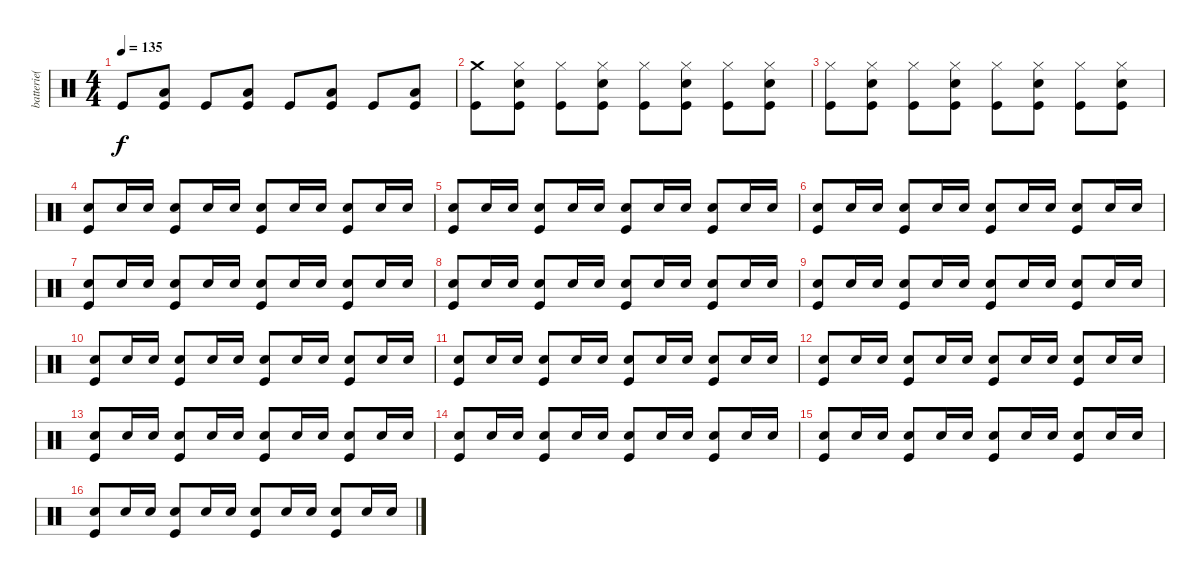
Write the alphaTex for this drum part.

\track ("batterie( Shane )" "batterie( ") {instrument percussion}
\staff {score}
\articulation defaults
\ts (4 4)
\tempo 135
\clef neutral
\ks c "Kick (hit)".8{dy f}
("Low Floor Tom (hit)" "Kick (hit)").8 "Kick (hit)".8 ("Low Floor Tom (hit)" "Kick (hit)").8 "Kick (hit)".8 ("Low Floor Tom (hit)" "Kick (hit)").8 "Kick (hit)".8 ("Low Floor Tom (hit)" "Kick (hit)").8 |
("Crash medium (hit)" "Kick (hit)").8 ("Hi-Hat (closed)" "Snare (hit) 2" "Kick (hit)").8 ("Hi-Hat (closed)" "Kick (hit)").8 ("Hi-Hat (closed)" "Snare (hit) 2" "Kick (hit)").8 ("Hi-Hat (closed)" "Kick (hit)").8 ("Hi-Hat (closed)" "Snare (hit) 2" "Kick (hit)").8 ("Hi-Hat (closed)" "Kick (hit)").8 ("Hi-Hat (closed)" "Snare (hit) 2" "Kick (hit)").8 |
("Hi-Hat (closed)" "Kick (hit)").8 ("Hi-Hat (closed)" "Snare (hit) 2" "Kick (hit)").8 ("Hi-Hat (closed)" "Kick (hit)").8 ("Hi-Hat (closed)" "Snare (hit) 2" "Kick (hit)").8 ("Hi-Hat (closed)" "Kick (hit)").8 ("Hi-Hat (closed)" "Snare (hit) 2" "Kick (hit)").8 ("Hi-Hat (closed)" "Kick (hit)").8 ("Hi-Hat (closed)" "Snare (hit) 2" "Kick (hit)").8 |
("Snare (hit) 2" "Kick (hit)").8 "Snare (hit) 2".16 "Snare (hit) 2".16 ("Snare (hit) 2" "Kick (hit)").8 "Snare (hit) 2".16 "Snare (hit) 2".16 ("Snare (hit) 2" "Kick (hit)").8 "Snare (hit) 2".16 "Snare (hit) 2".16 ("Snare (hit) 2" "Kick (hit)").8 "Snare (hit) 2".16 "Snare (hit) 2".16 |
("Snare (hit) 2" "Kick (hit)").8 "Snare (hit) 2".16 "Snare (hit) 2".16 ("Snare (hit) 2" "Kick (hit)").8 "Snare (hit) 2".16 "Snare (hit) 2".16 ("Snare (hit) 2" "Kick (hit)").8 "Snare (hit) 2".16 "Snare (hit) 2".16 ("Snare (hit) 2" "Kick (hit)").8 "Snare (hit) 2".16 "Snare (hit) 2".16 |
("Snare (hit) 2" "Kick (hit)").8 "Snare (hit) 2".16 "Snare (hit) 2".16 ("Snare (hit) 2" "Kick (hit)").8 "Snare (hit) 2".16 "Snare (hit) 2".16 ("Snare (hit) 2" "Kick (hit)").8 "Snare (hit) 2".16 "Snare (hit) 2".16 ("Snare (hit) 2" "Kick (hit)").8 "Snare (hit) 2".16 "Snare (hit) 2".16 |
("Snare (hit) 2" "Kick (hit)").8 "Snare (hit) 2".16 "Snare (hit) 2".16 ("Snare (hit) 2" "Kick (hit)").8 "Snare (hit) 2".16 "Snare (hit) 2".16 ("Snare (hit) 2" "Kick (hit)").8 "Snare (hit) 2".16 "Snare (hit) 2".16 ("Snare (hit) 2" "Kick (hit)").8 "Snare (hit) 2".16 "Snare (hit) 2".16 |
("Snare (hit) 2" "Kick (hit)").8 "Snare (hit) 2".16 "Snare (hit) 2".16 ("Snare (hit) 2" "Kick (hit)").8 "Snare (hit) 2".16 "Snare (hit) 2".16 ("Snare (hit) 2" "Kick (hit)").8 "Snare (hit) 2".16 "Snare (hit) 2".16 ("Snare (hit) 2" "Kick (hit)").8 "Snare (hit) 2".16 "Snare (hit) 2".16 |
("Snare (hit) 2" "Kick (hit)").8 "Snare (hit) 2".16 "Snare (hit) 2".16 ("Snare (hit) 2" "Kick (hit)").8 "Snare (hit) 2".16 "Snare (hit) 2".16 ("Snare (hit) 2" "Kick (hit)").8 "Snare (hit) 2".16 "Snare (hit) 2".16 ("Snare (hit) 2" "Kick (hit)").8 "Snare (hit) 2".16 "Snare (hit) 2".16 |
("Snare (hit) 2" "Kick (hit)").8 "Snare (hit) 2".16 "Snare (hit) 2".16 ("Snare (hit) 2" "Kick (hit)").8 "Snare (hit) 2".16 "Snare (hit) 2".16 ("Snare (hit) 2" "Kick (hit)").8 "Snare (hit) 2".16 "Snare (hit) 2".16 ("Snare (hit) 2" "Kick (hit)").8 "Snare (hit) 2".16 "Snare (hit) 2".16 |
("Snare (hit) 2" "Kick (hit)").8 "Snare (hit) 2".16 "Snare (hit) 2".16 ("Snare (hit) 2" "Kick (hit)").8 "Snare (hit) 2".16 "Snare (hit) 2".16 ("Snare (hit) 2" "Kick (hit)").8 "Snare (hit) 2".16 "Snare (hit) 2".16 ("Snare (hit) 2" "Kick (hit)").8 "Snare (hit) 2".16 "Snare (hit) 2".16 |
("Snare (hit) 2" "Kick (hit)").8 "Snare (hit) 2".16 "Snare (hit) 2".16 ("Snare (hit) 2" "Kick (hit)").8 "Snare (hit) 2".16 "Snare (hit) 2".16 ("Snare (hit) 2" "Kick (hit)").8 "Snare (hit) 2".16 "Snare (hit) 2".16 ("Snare (hit) 2" "Kick (hit)").8 "Snare (hit) 2".16 "Snare (hit) 2".16 |
("Snare (hit) 2" "Kick (hit)").8 "Snare (hit) 2".16 "Snare (hit) 2".16 ("Snare (hit) 2" "Kick (hit)").8 "Snare (hit) 2".16 "Snare (hit) 2".16 ("Snare (hit) 2" "Kick (hit)").8 "Snare (hit) 2".16 "Snare (hit) 2".16 ("Snare (hit) 2" "Kick (hit)").8 "Snare (hit) 2".16 "Snare (hit) 2".16 |
("Snare (hit) 2" "Kick (hit)").8 "Snare (hit) 2".16 "Snare (hit) 2".16 ("Snare (hit) 2" "Kick (hit)").8 "Snare (hit) 2".16 "Snare (hit) 2".16 ("Snare (hit) 2" "Kick (hit)").8 "Snare (hit) 2".16 "Snare (hit) 2".16 ("Snare (hit) 2" "Kick (hit)").8 "Snare (hit) 2".16 "Snare (hit) 2".16 |
("Snare (hit) 2" "Kick (hit)").8 "Snare (hit) 2".16 "Snare (hit) 2".16 ("Snare (hit) 2" "Kick (hit)").8 "Snare (hit) 2".16 "Snare (hit) 2".16 ("Snare (hit) 2" "Kick (hit)").8 "Snare (hit) 2".16 "Snare (hit) 2".16 ("Snare (hit) 2" "Kick (hit)").8 "Snare (hit) 2".16 "Snare (hit) 2".16 |
("Snare (hit) 2" "Kick (hit)").8 "Snare (hit) 2".16 "Snare (hit) 2".16 ("Snare (hit) 2" "Kick (hit)").8 "Snare (hit) 2".16 "Snare (hit) 2".16 ("Snare (hit) 2" "Kick (hit)").8 "Snare (hit) 2".16 "Snare (hit) 2".16 ("Snare (hit) 2" "Kick (hit)").8 "Snare (hit) 2".16 "Snare (hit) 2".16
